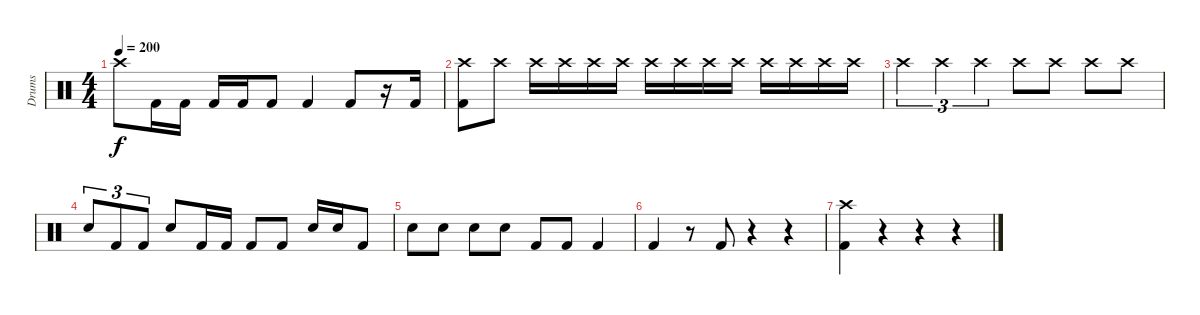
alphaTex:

\track ("Drums" "Drums") {instrument percussion}
\staff {score}
\articulation defaults
\ts (4 4)
\tempo 200
\clef neutral
\ks c "Crash high (hit)".8{dy f} "Kick (hit) 2".16 "Kick (hit) 2".16 "Kick (hit) 2".16 "Kick (hit) 2".16 "Kick (hit) 2".8 "Kick (hit) 2".4 "Kick (hit) 2".8
r.16 "Kick (hit) 2".16 |
("Crash high (hit)" "Kick (hit) 2").8 "Crash high (hit)".8 "Crash high (hit)".16 "Crash high (hit)".16 "Crash high (hit)".16 "Crash high (hit)".16 "Crash high (hit)".16 "Crash high (hit)".16 "Crash high (hit)".16 "Crash high (hit)".16 "Crash high (hit)".16 "Crash high (hit)".16 "Crash high (hit)".16 "Crash high (hit)".16 |
"Crash high (hit)".4{tu (3 2)} "Crash high (hit)".4{tu (3 2)} "Crash high (hit)".4{tu (3 2)} "Crash high (hit)".8 "Crash high (hit)".8 "Crash high (hit)".8 "Crash high (hit)".8 |
"Electric Snare (hit)".8{tu (3 2)} "Kick (hit) 2".8{tu (3 2)} "Kick (hit) 2".8{tu (3 2)} "Electric Snare (hit)".8 "Kick (hit) 2".16 "Kick (hit) 2".16 "Kick (hit) 2".8 "Kick (hit) 2".8 "Electric Snare (hit)".16 "Electric Snare (hit)".16 "Kick (hit) 2".8 |
"Electric Snare (hit)".8 "Electric Snare (hit)".8 "Electric Snare (hit)".8 "Electric Snare (hit)".8 "Kick (hit) 2".8 "Kick (hit) 2".8 "Kick (hit) 2".4 |
"Kick (hit) 2".4 r.8 "Kick (hit) 2".8 r.4 r.4 |
("Crash high (hit)" "Kick (hit) 2").4 r.4 r.4 r.4
